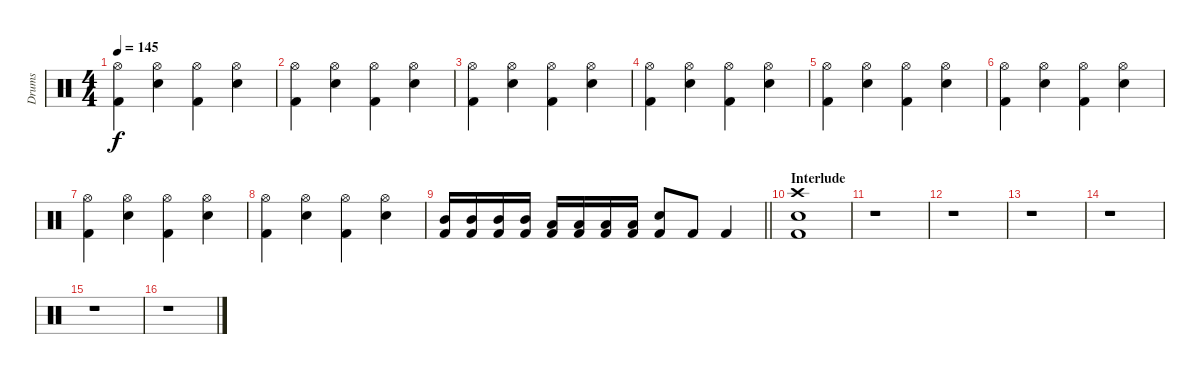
\track ("Drums" "Drums") {instrument percussion}
\staff {score}
\articulation defaults
\ts (4 4)
\tempo 145
\clef neutral
\ks c
("Kick (hit) 2" "Hi-Hat (open)").4{dy f} ("Electric Snare (hit)" "Hi-Hat (open)").4 ("Kick (hit) 2" "Hi-Hat (open)").4 ("Electric Snare (hit)" "Hi-Hat (open)").4 |
("Kick (hit) 2" "Hi-Hat (open)").4 ("Electric Snare (hit)" "Hi-Hat (open)").4 ("Kick (hit) 2" "Hi-Hat (open)").4 ("Electric Snare (hit)" "Hi-Hat (open)").4 |
("Kick (hit) 2" "Hi-Hat (open)").4 ("Electric Snare (hit)" "Hi-Hat (open)").4 ("Kick (hit) 2" "Hi-Hat (open)").4 ("Electric Snare (hit)" "Hi-Hat (open)").4 |
("Kick (hit) 2" "Hi-Hat (open)").4 ("Electric Snare (hit)" "Hi-Hat (open)").4 ("Kick (hit) 2" "Hi-Hat (open)").4 ("Electric Snare (hit)" "Hi-Hat (open)").4 |
("Kick (hit) 2" "Hi-Hat (open)").4 ("Electric Snare (hit)" "Hi-Hat (open)").4 ("Kick (hit) 2" "Hi-Hat (open)").4 ("Electric Snare (hit)" "Hi-Hat (open)").4 |
("Kick (hit) 2" "Hi-Hat (open)").4 ("Electric Snare (hit)" "Hi-Hat (open)").4 ("Kick (hit) 2" "Hi-Hat (open)").4 ("Electric Snare (hit)" "Hi-Hat (open)").4 |
("Kick (hit) 2" "Hi-Hat (open)").4 ("Electric Snare (hit)" "Hi-Hat (open)").4 ("Kick (hit) 2" "Hi-Hat (open)").4 ("Electric Snare (hit)" "Hi-Hat (open)").4 |
("Kick (hit) 2" "Hi-Hat (open)").4 ("Electric Snare (hit)" "Hi-Hat (open)").4 ("Kick (hit) 2" "Hi-Hat (open)").4 ("Electric Snare (hit)" "Hi-Hat (open)").4 |
\barLineRight lightlight
("Kick (hit) 2" "Mid Tom (hit)").16 ("Kick (hit) 2" "Mid Tom (hit)").16 ("Kick (hit) 2" "Mid Tom (hit)").16 ("Kick (hit) 2" "Mid Tom (hit)").16 ("Kick (hit) 2" "Low Tom (hit)").16 ("Kick (hit) 2" "Low Tom (hit)").16 ("Kick (hit) 2" "Low Tom (hit)").16 ("Kick (hit) 2" "Low Tom (hit)").16 ("Kick (hit) 2" "Electric Snare (hit)").8 "Kick (hit) 2".8 "Kick (hit) 2".4 |
\section ("" "Interlude")
("Kick (hit) 2" "Crash high (hit)" "Electric Snare (hit)").1 |
r.1 |
r.1 |
r.1 |
r.1 |
r.1 |
r.1
